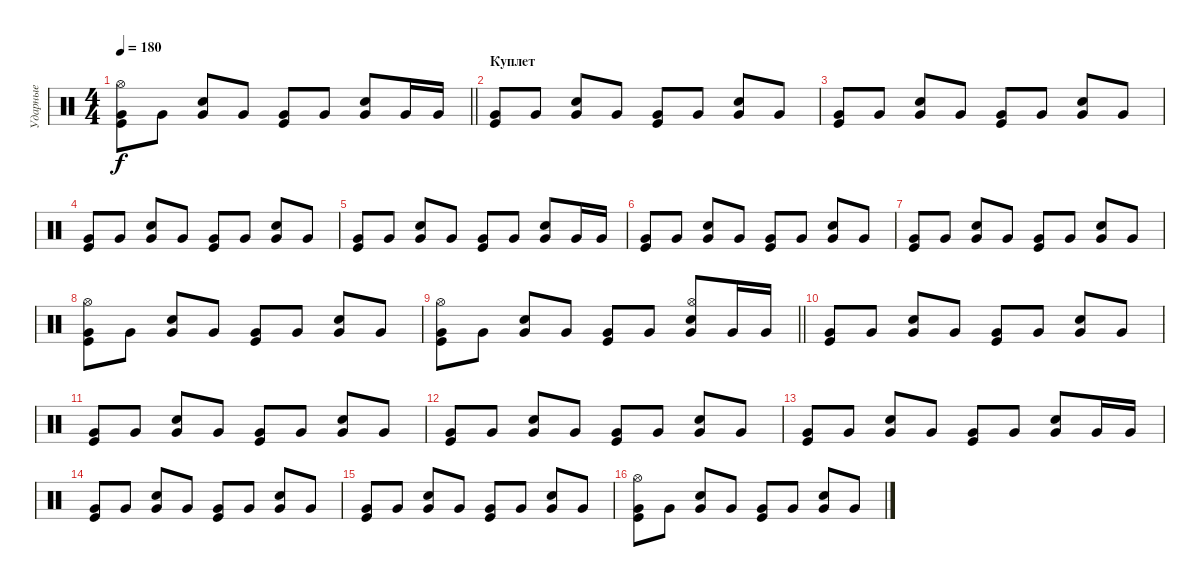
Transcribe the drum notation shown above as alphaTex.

\track ("Ударные" "Ударные") {instrument percussion}
\staff {score}
\articulation defaults
\ts (4 4)
\tempo 180
\clef neutral
\barLineRight lightlight
\ks c
("Very Low Tom (hit)" "Kick (hit)" "Hi-Hat (open)").8{dy f} "Very Low Tom (hit)".8 ("Very Low Tom (hit)" "Electric Snare (hit)").8 "Very Low Tom (hit)".8 ("Very Low Tom (hit)" "Kick (hit)").8 "Very Low Tom (hit)".8 ("Very Low Tom (hit)" "Electric Snare (hit)").8 "Very Low Tom (hit)".16 "Very Low Tom (hit)".16 |
\section ("" "Куплет")
("Very Low Tom (hit)" "Kick (hit)").8 "Very Low Tom (hit)".8 ("Very Low Tom (hit)" "Electric Snare (hit)").8 "Very Low Tom (hit)".8 ("Very Low Tom (hit)" "Kick (hit)").8 "Very Low Tom (hit)".8 ("Very Low Tom (hit)" "Electric Snare (hit)").8 "Very Low Tom (hit)".8 |
("Very Low Tom (hit)" "Kick (hit)").8 "Very Low Tom (hit)".8 ("Very Low Tom (hit)" "Electric Snare (hit)").8 "Very Low Tom (hit)".8 ("Very Low Tom (hit)" "Kick (hit)").8 "Very Low Tom (hit)".8 ("Very Low Tom (hit)" "Electric Snare (hit)").8 "Very Low Tom (hit)".8 |
("Very Low Tom (hit)" "Kick (hit)").8 "Very Low Tom (hit)".8 ("Very Low Tom (hit)" "Electric Snare (hit)").8 "Very Low Tom (hit)".8 ("Very Low Tom (hit)" "Kick (hit)").8 "Very Low Tom (hit)".8 ("Very Low Tom (hit)" "Electric Snare (hit)").8 "Very Low Tom (hit)".8 |
("Very Low Tom (hit)" "Kick (hit)").8 "Very Low Tom (hit)".8 ("Very Low Tom (hit)" "Electric Snare (hit)").8 "Very Low Tom (hit)".8 ("Very Low Tom (hit)" "Kick (hit)").8 "Very Low Tom (hit)".8 ("Very Low Tom (hit)" "Electric Snare (hit)").8 "Very Low Tom (hit)".16 "Very Low Tom (hit)".16 |
("Very Low Tom (hit)" "Kick (hit)").8 "Very Low Tom (hit)".8 ("Very Low Tom (hit)" "Electric Snare (hit)").8 "Very Low Tom (hit)".8 ("Very Low Tom (hit)" "Kick (hit)").8 "Very Low Tom (hit)".8 ("Very Low Tom (hit)" "Electric Snare (hit)").8 "Very Low Tom (hit)".8 |
("Very Low Tom (hit)" "Kick (hit)").8 "Very Low Tom (hit)".8 ("Very Low Tom (hit)" "Electric Snare (hit)").8 "Very Low Tom (hit)".8 ("Very Low Tom (hit)" "Kick (hit)").8 "Very Low Tom (hit)".8 ("Very Low Tom (hit)" "Electric Snare (hit)").8 "Very Low Tom (hit)".8 |
("Very Low Tom (hit)" "Kick (hit)" "Hi-Hat (open)").8 "Very Low Tom (hit)".8 ("Very Low Tom (hit)" "Electric Snare (hit)").8 "Very Low Tom (hit)".8 ("Very Low Tom (hit)" "Kick (hit)").8 "Very Low Tom (hit)".8 ("Very Low Tom (hit)" "Electric Snare (hit)").8 "Very Low Tom (hit)".8 |
\barLineRight lightlight
("Very Low Tom (hit)" "Kick (hit)" "Hi-Hat (open)").8 "Very Low Tom (hit)".8 ("Very Low Tom (hit)" "Electric Snare (hit)").8 "Very Low Tom (hit)".8 ("Very Low Tom (hit)" "Kick (hit)").8 "Very Low Tom (hit)".8 ("Very Low Tom (hit)" "Electric Snare (hit)" "Hi-Hat (open)").8 "Very Low Tom (hit)".16 "Very Low Tom (hit)".16 |
\section ("" " ")
("Very Low Tom (hit)" "Kick (hit)").8 "Very Low Tom (hit)".8 ("Very Low Tom (hit)" "Electric Snare (hit)").8 "Very Low Tom (hit)".8 ("Very Low Tom (hit)" "Kick (hit)").8 "Very Low Tom (hit)".8 ("Very Low Tom (hit)" "Electric Snare (hit)").8 "Very Low Tom (hit)".8 |
("Very Low Tom (hit)" "Kick (hit)").8 "Very Low Tom (hit)".8 ("Very Low Tom (hit)" "Electric Snare (hit)").8 "Very Low Tom (hit)".8 ("Very Low Tom (hit)" "Kick (hit)").8 "Very Low Tom (hit)".8 ("Very Low Tom (hit)" "Electric Snare (hit)").8 "Very Low Tom (hit)".8 |
("Very Low Tom (hit)" "Kick (hit)").8 "Very Low Tom (hit)".8 ("Very Low Tom (hit)" "Electric Snare (hit)").8 "Very Low Tom (hit)".8 ("Very Low Tom (hit)" "Kick (hit)").8 "Very Low Tom (hit)".8 ("Very Low Tom (hit)" "Electric Snare (hit)").8 "Very Low Tom (hit)".8 |
("Very Low Tom (hit)" "Kick (hit)").8 "Very Low Tom (hit)".8 ("Very Low Tom (hit)" "Electric Snare (hit)").8 "Very Low Tom (hit)".8 ("Very Low Tom (hit)" "Kick (hit)").8 "Very Low Tom (hit)".8 ("Very Low Tom (hit)" "Electric Snare (hit)").8 "Very Low Tom (hit)".16 "Very Low Tom (hit)".16 |
("Very Low Tom (hit)" "Kick (hit)").8 "Very Low Tom (hit)".8 ("Very Low Tom (hit)" "Electric Snare (hit)").8 "Very Low Tom (hit)".8 ("Very Low Tom (hit)" "Kick (hit)").8 "Very Low Tom (hit)".8 ("Very Low Tom (hit)" "Electric Snare (hit)").8 "Very Low Tom (hit)".8 |
("Very Low Tom (hit)" "Kick (hit)").8 "Very Low Tom (hit)".8 ("Very Low Tom (hit)" "Electric Snare (hit)").8 "Very Low Tom (hit)".8 ("Very Low Tom (hit)" "Kick (hit)").8 "Very Low Tom (hit)".8 ("Very Low Tom (hit)" "Electric Snare (hit)").8 "Very Low Tom (hit)".8 |
("Very Low Tom (hit)" "Kick (hit)" "Hi-Hat (open)").8 "Very Low Tom (hit)".8 ("Very Low Tom (hit)" "Electric Snare (hit)").8 "Very Low Tom (hit)".8 ("Very Low Tom (hit)" "Kick (hit)").8 "Very Low Tom (hit)".8 ("Very Low Tom (hit)" "Electric Snare (hit)").8 "Very Low Tom (hit)".8
